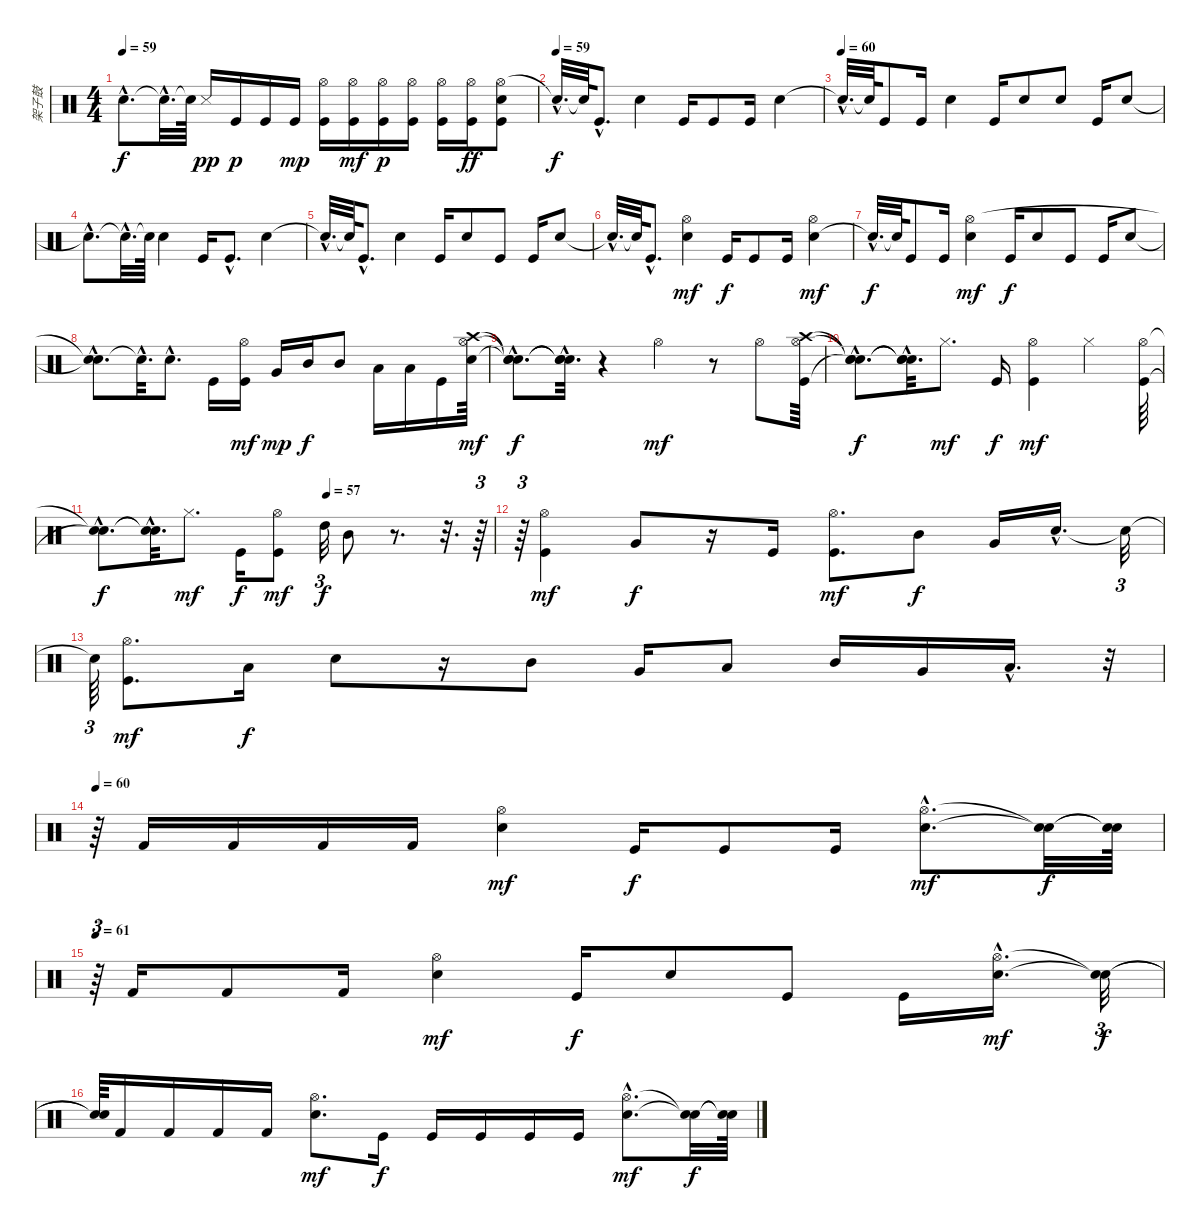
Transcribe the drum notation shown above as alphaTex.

\track ("架子鼓" "架子鼓") {instrument percussion}
\staff {score}
\articulation defaults
\ts (4 4)
\tempo 59
\clef neutral
\ks c "Snare (hit)"{hac t}.8{d dy f} "Snare (hit)"{hac t}.32{d} "Snare (hit)"{t}.64 "Snare (side stick) 3".16{dy pp} "Kick (hit)".16{dy p} "Kick (hit)".16 "Kick (hit)".16{dy mp}
("Hi-Hat (open)" "Kick (hit)").16 ("Hi-Hat (open)" "Kick (hit)").16{dy mf} ("Kick (hit)" "Hi-Hat (open)").16{dy p} ("Hi-Hat (open)" "Kick (hit)").16 ("Hi-Hat (open)" "Kick (hit)").16 ("Hi-Hat (open)" "Kick (hit)").16{dy ff} ("Hi-Hat (open)" "Electric Snare (hit)" "Kick (hit)").8 |
\tempo (59)
"Snare (hit)"{hac t}.32{d dy f} "Snare (hit)"{t}.64 "Kick (hit)"{hac}.8{d} "Electric Snare (hit)".4 "Kick (hit)".16 "Kick (hit)".8 "Kick (hit)".16 "Electric Snare (hit)".4 |
\tempo (60)
"Snare (hit)"{hac t}.32{d} "Snare (hit)"{t}.64 "Kick (hit)".8 "Kick (hit)".16 "Electric Snare (hit)".4 "Kick (hit)".16 "Electric Snare (hit)".8 "Electric Snare (hit)".8 "Kick (hit)".16 "Electric Snare (hit)".8 |
"Snare (hit)"{hac t}.8{d} "Snare (hit)"{hac t}.32{d} "Snare (hit)"{t}.64 "Electric Snare (hit)".4 "Kick (hit)".16 "Kick (hit)"{hac}.8{d} "Electric Snare (hit)".4 |
"Snare (hit)"{hac t}.32{d} "Snare (hit)"{t}.64 "Kick (hit)"{hac}.8{d} "Electric Snare (hit)".4 "Kick (hit)".16 "Electric Snare (hit)".8 "Kick (hit)".8 "Kick (hit)".16 "Electric Snare (hit)".8 |
"Snare (hit)"{hac t}.32{d} "Snare (hit)"{t}.64 "Kick (hit)"{hac}.8{d} ("Hi-Hat (open)" "Electric Snare (hit)").4{dy mf} "Kick (hit)".16{dy f} "Kick (hit)".8 "Kick (hit)".16 ("Electric Snare (hit)" "Hi-Hat (open)").4{dy mf} |
"Snare (hit)"{hac t}.32{d dy f} "Snare (hit)"{t}.64 "Kick (hit)".8 "Kick (hit)".16 ("Electric Snare (hit)" "Hi-Hat (open)").4{dy mf} "Kick (hit)".16{dy f} "Electric Snare (hit)".8 "Kick (hit)".8 "Kick (hit)".16 "Electric Snare (hit)".8 |
("Snare (hit)"{hac t} "Snare (hit)"{hac t}).8{d} "Snare (hit)"{hac t}.32{d} "Electric Snare (hit)"{hac}.8{d} "Kick (hit)".16 ("Kick (hit)" "Hi-Hat (open)").16{dy mf} "Very Low Tom (hit)".16{dy mp} "Mid Tom (hit)".16{dy f} "Mid Tom (hit)".8 "Low Tom (hit)".16 "Low Floor Tom (hit)".16 "Kick (hit)".16 ("Hi-Hat (open)" "Electric Snare (hit)" "Crash high (hit)").64{dy mf} |
("Snare (hit)"{hac t} "Snare (hit)"{hac t} "Snare (hit)"{hac t}).8{d dy f} ("Snare (hit)"{hac t} "Snare (hit)"{hac t} "Snare (hit)"{hac t}).32{d} r.4 "Hi-Hat (open)".4{dy mf} r.8 "Hi-Hat (open)".8 ("Hi-Hat (open)" "Kick (hit)" "Crash high (hit)").64 |
("Snare (hit)"{hac t} "Snare (hit)"{hac t} "Snare (hit)"{hac t}).8{d dy f} ("Snare (hit)"{hac t} "Snare (hit)"{hac t} "Snare (hit)"{hac t}).32{d} "Hi-Hat (closed)".8{d dy mf} "Kick (hit)".16{dy f} ("Kick (hit)" "Hi-Hat (open)").4{dy mf} "Hi-Hat (closed)".4 ("Hi-Hat (open)" "Kick (hit)").64 |
\tempo (57 0.578125)
("Snare (hit)"{hac t} "Snare (hit)"{hac t}).8{d dy f volume 15} ("Snare (hit)"{hac t} "Snare (hit)"{hac t}).32{d} "Hi-Hat (closed)".8{d dy mf} "Kick (hit)".16{dy f} ("Kick (hit)" "Hi-Hat (open)").8{dy mf} "High Tom (hit)".32{tu (3 2) dy f} "Mid Tom (hit)".8 r.8{d} r.32{d} r.64{tu (3 2)} |
r.64{tu (3 2)} ("Hi-Hat (open)" "Kick (hit)").4{dy mf} "Very Low Tom (hit)".8{dy f} r.16 "Kick (hit)".16 ("Hi-Hat (open)" "Kick (hit)").8{d dy mf} "Mid Tom (hit)".8{dy f} "Very Low Tom (hit)".16 "Electric Snare (hit)"{hac}.16{d} "Snare (hit)"{t}.32{tu (3 2)} |
"Snare (hit)"{t}.64{tu (3 2)} ("Hi-Hat (open)" "Kick (hit)").8{d dy mf} "Low Floor Tom (hit)".16{dy f} "Electric Snare (hit)".8 r.16 "Mid Tom (hit)".8 "Very Low Tom (hit)".16 "Low Floor Tom (hit)".8 "Mid Tom (hit)".16 "Very Low Tom (hit)".16 "Low Floor Tom (hit)"{hac}.16{d} r.32{tu (3 2)} |
\tempo 60
r.64 "Kick (hit) 2".16 "Kick (hit) 2".16 "Kick (hit) 2".16 "Kick (hit) 2".16 ("Hi-Hat (open)" "Electric Snare (hit)").4{dy mf} "Kick (hit)".16{dy f} "Kick (hit)".8 "Kick (hit)".16 ("Electric Snare (hit)"{hac} "Hi-Hat (open)"{hac}).8{d dy mf} ("Snare (hit)"{t} "Snare (hit)"{t}).32{dy f} ("Snare (hit)"{t} "Snare (hit)"{t}).64 |
\tempo 61
r.64{tu (3 2)} "Kick (hit) 2".16 "Kick (hit) 2".8 "Kick (hit) 2".16 ("Hi-Hat (open)" "Electric Snare (hit)").4{dy mf} "Kick (hit)".16{dy f} "Electric Snare (hit)".8 "Kick (hit)".8 "Kick (hit)".16 ("Hi-Hat (open)"{hac} "Electric Snare (hit)"{hac}).16{d dy mf} ("Snare (hit)"{t} "Snare (hit)"{t}).32{tu (3 2) dy f} |
("Snare (hit)"{t} "Snare (hit)"{t}).64 "Kick (hit) 2".16 "Kick (hit) 2".16 "Kick (hit) 2".16 "Kick (hit) 2".16 ("Electric Snare (hit)" "Hi-Hat (open)").8{d dy mf} "Kick (hit)".16{dy f} "Kick (hit)".16 "Kick (hit)".16 "Kick (hit)".16 "Kick (hit)".16 ("Electric Snare (hit)"{hac} "Hi-Hat (open)"{hac}).8{d dy mf} ("Snare (hit)"{t} "Snare (hit)"{t}).32{dy f} ("Snare (hit)"{t} "Snare (hit)"{t}).64
